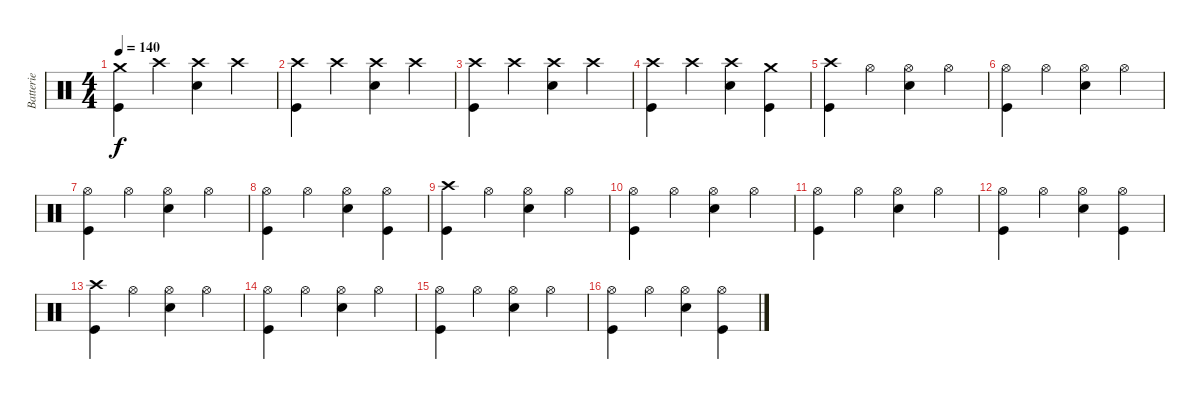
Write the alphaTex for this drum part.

\track ("Batterie" "Batterie") {instrument percussion}
\staff {score}
\articulation defaults
\ts (4 4)
\tempo 140
\clef neutral
\ks c
("Crash medium (hit)" "Kick (hit)").4{dy f} "Crash high (hit)".4 ("Crash high (hit)" "Electric Snare (hit)").4 "Crash high (hit)".4 |
("Crash high (hit)" "Kick (hit)").4 "Crash high (hit)".4 ("Crash high (hit)" "Electric Snare (hit)").4 "Crash high (hit)".4 |
("Crash high (hit)" "Kick (hit)").4 "Crash high (hit)".4 ("Crash high (hit)" "Electric Snare (hit)").4 "Crash high (hit)".4 |
("Crash high (hit)" "Kick (hit)").4 "Crash high (hit)".4 ("Crash high (hit)" "Electric Snare (hit)").4 ("Crash medium (hit)" "Kick (hit)").4 |
("Crash high (hit)" "Kick (hit)").4 "Hi-Hat (open)".4 ("Hi-Hat (open)" "Electric Snare (hit)").4 "Hi-Hat (open)".4 |
("Hi-Hat (open)" "Kick (hit)").4 "Hi-Hat (open)".4 ("Hi-Hat (open)" "Electric Snare (hit)").4 "Hi-Hat (open)".4 |
("Hi-Hat (open)" "Kick (hit)").4 "Hi-Hat (open)".4 ("Hi-Hat (open)" "Electric Snare (hit)").4 "Hi-Hat (open)".4 |
("Hi-Hat (open)" "Kick (hit)").4 "Hi-Hat (open)".4 ("Hi-Hat (open)" "Electric Snare (hit)").4 ("Hi-Hat (open)" "Kick (hit)").4 |
("Crash high (hit)" "Kick (hit)").4 "Hi-Hat (open)".4 ("Hi-Hat (open)" "Electric Snare (hit)").4 "Hi-Hat (open)".4 |
("Hi-Hat (open)" "Kick (hit)").4 "Hi-Hat (open)".4 ("Hi-Hat (open)" "Electric Snare (hit)").4 "Hi-Hat (open)".4 |
("Hi-Hat (open)" "Kick (hit)").4 "Hi-Hat (open)".4 ("Hi-Hat (open)" "Electric Snare (hit)").4 "Hi-Hat (open)".4 |
("Hi-Hat (open)" "Kick (hit)").4 "Hi-Hat (open)".4 ("Hi-Hat (open)" "Electric Snare (hit)").4 ("Hi-Hat (open)" "Kick (hit)").4 |
("Crash high (hit)" "Kick (hit)").4 "Hi-Hat (open)".4 ("Hi-Hat (open)" "Electric Snare (hit)").4 "Hi-Hat (open)".4 |
("Hi-Hat (open)" "Kick (hit)").4 "Hi-Hat (open)".4 ("Hi-Hat (open)" "Electric Snare (hit)").4 "Hi-Hat (open)".4 |
("Hi-Hat (open)" "Kick (hit)").4 "Hi-Hat (open)".4 ("Hi-Hat (open)" "Electric Snare (hit)").4 "Hi-Hat (open)".4 |
("Hi-Hat (open)" "Kick (hit)").4 "Hi-Hat (open)".4 ("Hi-Hat (open)" "Electric Snare (hit)").4 ("Hi-Hat (open)" "Kick (hit)").4
